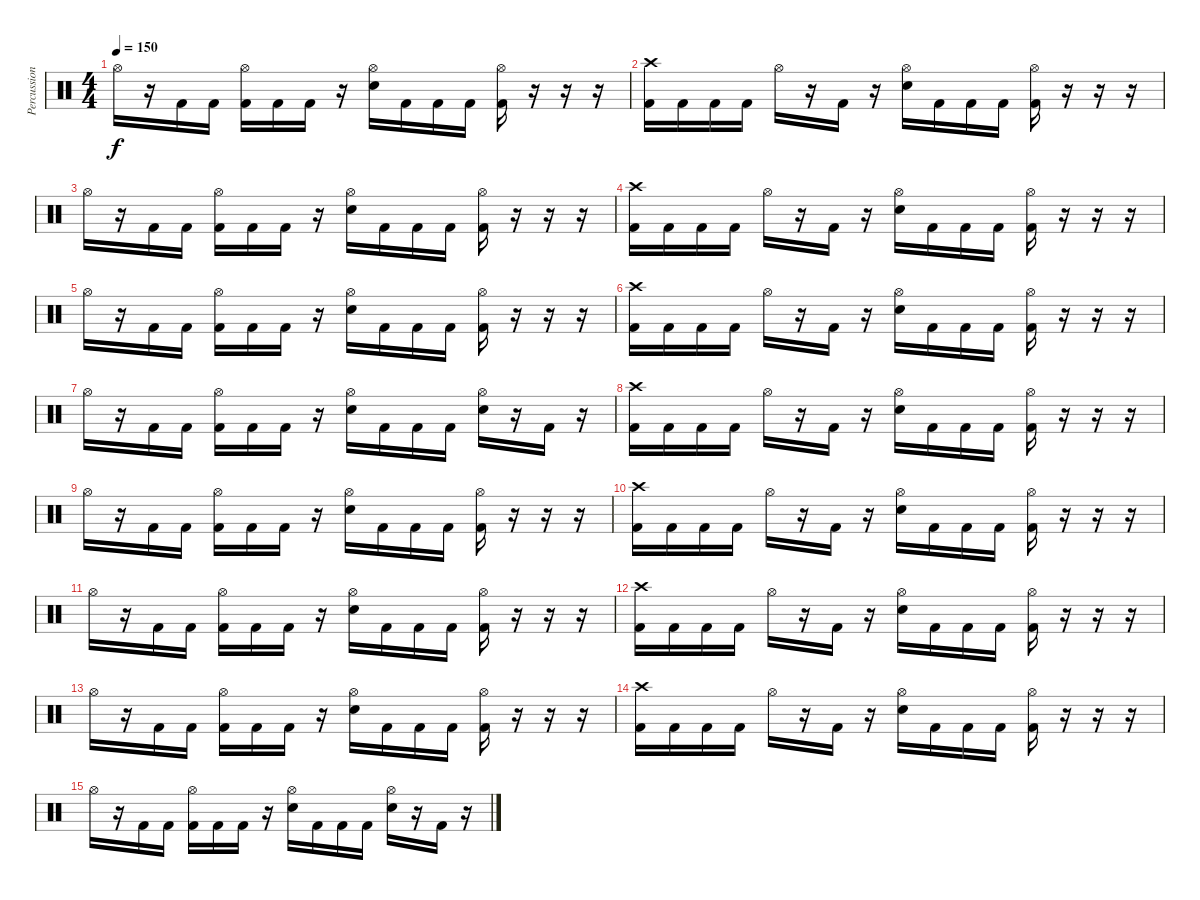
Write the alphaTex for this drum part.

\track ("Percussion" "Percussion") {instrument percussion}
\staff {score}
\articulation defaults
\ts (4 4)
\tempo 150
\clef neutral
\ks c "Hi-Hat (open)".16{dy f}
r.16 "Kick (hit) 2".16 "Kick (hit) 2".16 ("Hi-Hat (open)" "Kick (hit) 2").16 "Kick (hit) 2".16 "Kick (hit) 2".16 r.16 ("Hi-Hat (open)" "Snare (hit) 2").16 "Kick (hit) 2".16 "Kick (hit) 2".16 "Kick (hit) 2".16 ("Hi-Hat (open)" "Kick (hit) 2").16 r.16 r.16 r.16 |
("Crash high (hit)" "Kick (hit) 2").16 "Kick (hit) 2".16 "Kick (hit) 2".16 "Kick (hit) 2".16 "Hi-Hat (open)".16 r.16 "Kick (hit) 2".16 r.16 ("Hi-Hat (open)" "Snare (hit) 2").16 "Kick (hit) 2".16 "Kick (hit) 2".16 "Kick (hit) 2".16 ("Hi-Hat (open)" "Kick (hit) 2").16 r.16 r.16 r.16 |
"Hi-Hat (open)".16 r.16 "Kick (hit) 2".16 "Kick (hit) 2".16 ("Hi-Hat (open)" "Kick (hit) 2").16 "Kick (hit) 2".16 "Kick (hit) 2".16 r.16 ("Hi-Hat (open)" "Snare (hit) 2").16 "Kick (hit) 2".16 "Kick (hit) 2".16 "Kick (hit) 2".16 ("Hi-Hat (open)" "Kick (hit) 2").16 r.16 r.16 r.16 |
("Crash high (hit)" "Kick (hit) 2").16 "Kick (hit) 2".16 "Kick (hit) 2".16 "Kick (hit) 2".16 "Hi-Hat (open)".16 r.16 "Kick (hit) 2".16 r.16 ("Hi-Hat (open)" "Snare (hit) 2").16 "Kick (hit) 2".16 "Kick (hit) 2".16 "Kick (hit) 2".16 ("Hi-Hat (open)" "Kick (hit) 2").16 r.16 r.16 r.16 |
"Hi-Hat (open)".16 r.16 "Kick (hit) 2".16 "Kick (hit) 2".16 ("Hi-Hat (open)" "Kick (hit) 2").16 "Kick (hit) 2".16 "Kick (hit) 2".16 r.16 ("Hi-Hat (open)" "Snare (hit) 2").16 "Kick (hit) 2".16 "Kick (hit) 2".16 "Kick (hit) 2".16 ("Hi-Hat (open)" "Kick (hit) 2").16 r.16 r.16 r.16 |
("Crash high (hit)" "Kick (hit) 2").16 "Kick (hit) 2".16 "Kick (hit) 2".16 "Kick (hit) 2".16 "Hi-Hat (open)".16 r.16 "Kick (hit) 2".16 r.16 ("Hi-Hat (open)" "Snare (hit) 2").16 "Kick (hit) 2".16 "Kick (hit) 2".16 "Kick (hit) 2".16 ("Hi-Hat (open)" "Kick (hit) 2").16 r.16 r.16 r.16 |
"Hi-Hat (open)".16 r.16 "Kick (hit) 2".16 "Kick (hit) 2".16 ("Hi-Hat (open)" "Kick (hit) 2").16 "Kick (hit) 2".16 "Kick (hit) 2".16 r.16 ("Hi-Hat (open)" "Snare (hit) 2").16 "Kick (hit) 2".16 "Kick (hit) 2".16 "Kick (hit) 2".16 ("Hi-Hat (open)" "Snare (hit) 2").16 r.16 "Kick (hit) 2".16 r.16 |
("Crash high (hit)" "Kick (hit) 2").16 "Kick (hit) 2".16 "Kick (hit) 2".16 "Kick (hit) 2".16 "Hi-Hat (open)".16 r.16 "Kick (hit) 2".16 r.16 ("Hi-Hat (open)" "Snare (hit) 2").16 "Kick (hit) 2".16 "Kick (hit) 2".16 "Kick (hit) 2".16 ("Hi-Hat (open)" "Kick (hit) 2").16 r.16 r.16 r.16 |
"Hi-Hat (open)".16 r.16 "Kick (hit) 2".16 "Kick (hit) 2".16 ("Hi-Hat (open)" "Kick (hit) 2").16 "Kick (hit) 2".16 "Kick (hit) 2".16 r.16 ("Hi-Hat (open)" "Snare (hit) 2").16 "Kick (hit) 2".16 "Kick (hit) 2".16 "Kick (hit) 2".16 ("Hi-Hat (open)" "Kick (hit) 2").16 r.16 r.16 r.16 |
("Crash high (hit)" "Kick (hit) 2").16 "Kick (hit) 2".16 "Kick (hit) 2".16 "Kick (hit) 2".16 "Hi-Hat (open)".16 r.16 "Kick (hit) 2".16 r.16 ("Hi-Hat (open)" "Snare (hit) 2").16 "Kick (hit) 2".16 "Kick (hit) 2".16 "Kick (hit) 2".16 ("Hi-Hat (open)" "Kick (hit) 2").16 r.16 r.16 r.16 |
"Hi-Hat (open)".16 r.16 "Kick (hit) 2".16 "Kick (hit) 2".16 ("Hi-Hat (open)" "Kick (hit) 2").16 "Kick (hit) 2".16 "Kick (hit) 2".16 r.16 ("Hi-Hat (open)" "Snare (hit) 2").16 "Kick (hit) 2".16 "Kick (hit) 2".16 "Kick (hit) 2".16 ("Hi-Hat (open)" "Kick (hit) 2").16 r.16 r.16 r.16 |
("Crash high (hit)" "Kick (hit) 2").16 "Kick (hit) 2".16 "Kick (hit) 2".16 "Kick (hit) 2".16 "Hi-Hat (open)".16 r.16 "Kick (hit) 2".16 r.16 ("Hi-Hat (open)" "Snare (hit) 2").16 "Kick (hit) 2".16 "Kick (hit) 2".16 "Kick (hit) 2".16 ("Hi-Hat (open)" "Kick (hit) 2").16 r.16 r.16 r.16 |
"Hi-Hat (open)".16 r.16 "Kick (hit) 2".16 "Kick (hit) 2".16 ("Hi-Hat (open)" "Kick (hit) 2").16 "Kick (hit) 2".16 "Kick (hit) 2".16 r.16 ("Hi-Hat (open)" "Snare (hit) 2").16 "Kick (hit) 2".16 "Kick (hit) 2".16 "Kick (hit) 2".16 ("Hi-Hat (open)" "Kick (hit) 2").16 r.16 r.16 r.16 |
("Crash high (hit)" "Kick (hit) 2").16 "Kick (hit) 2".16 "Kick (hit) 2".16 "Kick (hit) 2".16 "Hi-Hat (open)".16 r.16 "Kick (hit) 2".16 r.16 ("Hi-Hat (open)" "Snare (hit) 2").16 "Kick (hit) 2".16 "Kick (hit) 2".16 "Kick (hit) 2".16 ("Hi-Hat (open)" "Kick (hit) 2").16 r.16 r.16 r.16 |
"Hi-Hat (open)".16 r.16 "Kick (hit) 2".16 "Kick (hit) 2".16 ("Hi-Hat (open)" "Kick (hit) 2").16 "Kick (hit) 2".16 "Kick (hit) 2".16 r.16 ("Hi-Hat (open)" "Snare (hit) 2").16 "Kick (hit) 2".16 "Kick (hit) 2".16 "Kick (hit) 2".16 ("Hi-Hat (open)" "Snare (hit) 2").16 r.16 "Kick (hit) 2".16 r.16
